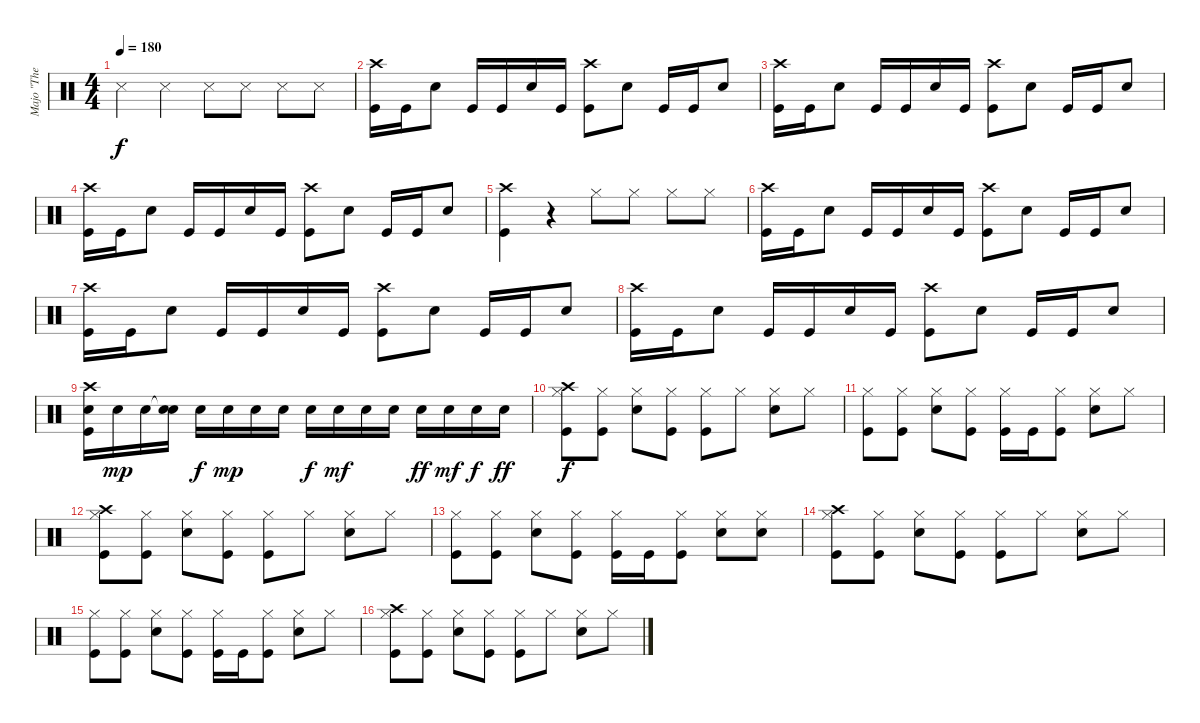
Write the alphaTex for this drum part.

\track ("Majo \"The Dremmel\" Hirt" "Majo \"The ") {instrument percussion}
\staff {score}
\articulation defaults
\ts (4 4)
\tempo 180
\clef neutral
\ks c "Snare (side stick) 3".4{dy f} "Snare (side stick) 3".4 "Snare (side stick) 3".8 "Snare (side stick) 3".8 "Snare (side stick) 3".8 "Snare (side stick) 3".8
|
("Crash high (hit)" "Kick (hit)").16 "Kick (hit)".16 "Electric Snare (hit)".8 "Kick (hit)".16 "Kick (hit)".16 "Electric Snare (hit)".16 "Kick (hit)".16 ("Crash high (hit)" "Kick (hit)").8 "Electric Snare (hit)".8 "Kick (hit)".16 "Kick (hit)".16 "Electric Snare (hit)".8 |
("Crash high (hit)" "Kick (hit)").16 "Kick (hit)".16 "Electric Snare (hit)".8 "Kick (hit)".16 "Kick (hit)".16 "Electric Snare (hit)".16 "Kick (hit)".16 ("Crash high (hit)" "Kick (hit)").8 "Electric Snare (hit)".8 "Kick (hit)".16 "Kick (hit)".16 "Electric Snare (hit)".8 |
("Crash high (hit)" "Kick (hit)").16 "Kick (hit)".16 "Electric Snare (hit)".8 "Kick (hit)".16 "Kick (hit)".16 "Electric Snare (hit)".16 "Kick (hit)".16 ("Crash high (hit)" "Kick (hit)").8 "Electric Snare (hit)".8 "Kick (hit)".16 "Kick (hit)".16 "Electric Snare (hit)".8 |
("Crash high (hit)" "Kick (hit)").4 r.4 "Hi-Hat (closed)".8 "Hi-Hat (closed)".8 "Hi-Hat (closed)".8 "Hi-Hat (closed)".8 |
("Crash high (hit)" "Kick (hit)").16 "Kick (hit)".16 "Electric Snare (hit)".8 "Kick (hit)".16 "Kick (hit)".16 "Electric Snare (hit)".16 "Kick (hit)".16 ("Crash high (hit)" "Kick (hit)").8 "Electric Snare (hit)".8 "Kick (hit)".16 "Kick (hit)".16 "Electric Snare (hit)".8 |
("Crash high (hit)" "Kick (hit)").16 "Kick (hit)".16 "Electric Snare (hit)".8 "Kick (hit)".16 "Kick (hit)".16 "Electric Snare (hit)".16 "Kick (hit)".16 ("Crash high (hit)" "Kick (hit)").8 "Electric Snare (hit)".8 "Kick (hit)".16 "Kick (hit)".16 "Electric Snare (hit)".8 |
("Crash high (hit)" "Kick (hit)").16 "Kick (hit)".16 "Electric Snare (hit)".8 "Kick (hit)".16 "Kick (hit)".16 "Electric Snare (hit)".16 "Kick (hit)".16 ("Crash high (hit)" "Kick (hit)").8 "Electric Snare (hit)".8 "Kick (hit)".16 "Kick (hit)".16 "Electric Snare (hit)".8 |
("Kick (hit)" "Crash high (hit)" "Electric Snare (hit)").16 "Electric Snare (hit)".16{dy mp} "Electric Snare (hit)".16 ("Snare (hit)"{t} "Electric Snare (hit)").16 "Electric Snare (hit)".16{dy f} "Electric Snare (hit)".16{dy mp} "Electric Snare (hit)".16 "Electric Snare (hit)".16 "Electric Snare (hit)".16{dy f} "Electric Snare (hit)".16{dy mf} "Electric Snare (hit)".16 "Electric Snare (hit)".16 "Electric Snare (hit)".16{dy ff} "Electric Snare (hit)".16{dy mf} "Electric Snare (hit)".16{dy f} "Electric Snare (hit)".16{dy ff} |
("Crash high (hit)" "Hi-Hat (closed)" "Kick (hit)").8{dy f} ("Hi-Hat (closed)" "Kick (hit)").8 ("Hi-Hat (closed)" "Electric Snare (hit)").8 ("Hi-Hat (closed)" "Kick (hit)").8 ("Hi-Hat (closed)" "Kick (hit)").8 "Hi-Hat (closed)".8 ("Hi-Hat (closed)" "Electric Snare (hit)").8 "Hi-Hat (closed)".8 |
("Hi-Hat (closed)" "Kick (hit)").8 ("Hi-Hat (closed)" "Kick (hit)").8 ("Hi-Hat (closed)" "Electric Snare (hit)").8 ("Hi-Hat (closed)" "Kick (hit)").8 ("Hi-Hat (closed)" "Kick (hit)").16 "Kick (hit)".16 ("Hi-Hat (closed)" "Kick (hit)").8 ("Hi-Hat (closed)" "Electric Snare (hit)").8 "Hi-Hat (closed)".8 |
("Crash high (hit)" "Hi-Hat (closed)" "Kick (hit)").8 ("Hi-Hat (closed)" "Kick (hit)").8 ("Hi-Hat (closed)" "Electric Snare (hit)").8 ("Hi-Hat (closed)" "Kick (hit)").8 ("Hi-Hat (closed)" "Kick (hit)").8 "Hi-Hat (closed)".8 ("Hi-Hat (closed)" "Electric Snare (hit)").8 "Hi-Hat (closed)".8 |
("Hi-Hat (closed)" "Kick (hit)").8 ("Hi-Hat (closed)" "Kick (hit)").8 ("Hi-Hat (closed)" "Electric Snare (hit)").8 ("Hi-Hat (closed)" "Kick (hit)").8 ("Hi-Hat (closed)" "Kick (hit)").16 "Kick (hit)".16 ("Hi-Hat (closed)" "Kick (hit)").8 ("Hi-Hat (closed)" "Electric Snare (hit)").8 ("Hi-Hat (closed)" "Electric Snare (hit)").8 |
("Crash high (hit)" "Hi-Hat (closed)" "Kick (hit)").8 ("Hi-Hat (closed)" "Kick (hit)").8 ("Hi-Hat (closed)" "Electric Snare (hit)").8 ("Hi-Hat (closed)" "Kick (hit)").8 ("Hi-Hat (closed)" "Kick (hit)").8 "Hi-Hat (closed)".8 ("Hi-Hat (closed)" "Electric Snare (hit)").8 "Hi-Hat (closed)".8 |
("Hi-Hat (closed)" "Kick (hit)").8 ("Hi-Hat (closed)" "Kick (hit)").8 ("Hi-Hat (closed)" "Electric Snare (hit)").8 ("Hi-Hat (closed)" "Kick (hit)").8 ("Hi-Hat (closed)" "Kick (hit)").16 "Kick (hit)".16 ("Hi-Hat (closed)" "Kick (hit)").8 ("Hi-Hat (closed)" "Electric Snare (hit)").8 "Hi-Hat (closed)".8 |
("Crash high (hit)" "Hi-Hat (closed)" "Kick (hit)").8 ("Hi-Hat (closed)" "Kick (hit)").8 ("Hi-Hat (closed)" "Electric Snare (hit)").8 ("Hi-Hat (closed)" "Kick (hit)").8 ("Hi-Hat (closed)" "Kick (hit)").8 "Hi-Hat (closed)".8 ("Hi-Hat (closed)" "Electric Snare (hit)").8 "Hi-Hat (closed)".8
